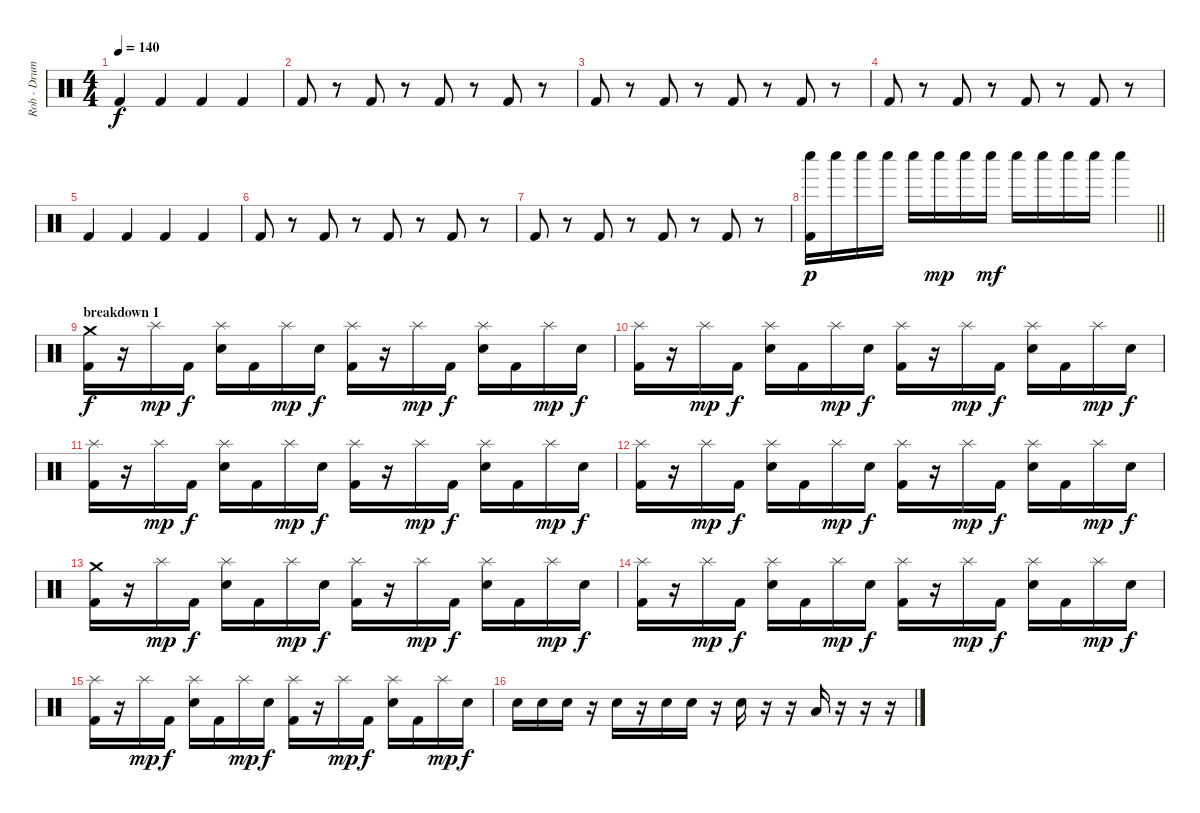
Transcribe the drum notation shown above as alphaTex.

\track ("Rob - Drums" "Rob - Drum") {instrument percussion}
\staff {score}
\articulation defaults
\ts (4 4)
\tempo 140
\clef neutral
\ks c "Kick (hit) 2".4{dy f} "Kick (hit) 2".4 "Kick (hit) 2".4 "Kick (hit) 2".4
|
"Kick (hit) 2".8 r.8 "Kick (hit) 2".8 r.8 "Kick (hit) 2".8 r.8 "Kick (hit) 2".8 r.8 |
"Kick (hit) 2".8 r.8 "Kick (hit) 2".8 r.8 "Kick (hit) 2".8 r.8 "Kick (hit) 2".8 r.8 |
"Kick (hit) 2".8 r.8 "Kick (hit) 2".8 r.8 "Kick (hit) 2".8 r.8 "Kick (hit) 2".8 r.8 |
"Kick (hit) 2".4 "Kick (hit) 2".4 "Kick (hit) 2".4 "Kick (hit) 2".4 |
"Kick (hit) 2".8 r.8 "Kick (hit) 2".8 r.8 "Kick (hit) 2".8 r.8 "Kick (hit) 2".8 r.8 |
"Kick (hit) 2".8 r.8 "Kick (hit) 2".8 r.8 "Kick (hit) 2".8 r.8 "Kick (hit) 2".8 r.8 |
\barLineRight lightlight
("Whistle low (hit)" "Kick (hit) 2").16{dy p} "Whistle low (hit)".16 "Whistle low (hit)".16 "Whistle low (hit)".16 "Whistle low (hit)".16 "Whistle low (hit)".16{dy mp} "Whistle low (hit)".16 "Whistle low (hit)".16{dy mf} "Whistle low (hit)".16 "Whistle low (hit)".16 "Whistle low (hit)".16 "Whistle low (hit)".16 "Whistle low (hit)".4 |
\section ("" "breakdown 1")
("Crash medium (hit)" "Kick (hit) 2").16{dy f} r.16 "Splash (hit)".16{dy mp} "Kick (hit) 2".16{dy f} ("Splash (hit)" "Electric Snare (hit)").16 "Kick (hit) 2".16 "Splash (hit)".16{dy mp} "Electric Snare (hit)".16{dy f} ("Splash (hit)" "Kick (hit) 2").16 r.16 "Splash (hit)".16{dy mp} "Kick (hit) 2".16{dy f} ("Splash (hit)" "Electric Snare (hit)").16 "Kick (hit) 2".16 "Splash (hit)".16{dy mp} "Electric Snare (hit)".16{dy f} |
("Splash (hit)" "Kick (hit) 2").16 r.16 "Splash (hit)".16{dy mp} "Kick (hit) 2".16{dy f} ("Splash (hit)" "Electric Snare (hit)").16 "Kick (hit) 2".16 "Splash (hit)".16{dy mp} "Electric Snare (hit)".16{dy f} ("Splash (hit)" "Kick (hit) 2").16 r.16 "Splash (hit)".16{dy mp} "Kick (hit) 2".16{dy f} ("Splash (hit)" "Electric Snare (hit)").16 "Kick (hit) 2".16 "Splash (hit)".16{dy mp} "Electric Snare (hit)".16{dy f} |
("Splash (hit)" "Kick (hit) 2").16 r.16 "Splash (hit)".16{dy mp} "Kick (hit) 2".16{dy f} ("Splash (hit)" "Electric Snare (hit)").16 "Kick (hit) 2".16 "Splash (hit)".16{dy mp} "Electric Snare (hit)".16{dy f} ("Splash (hit)" "Kick (hit) 2").16 r.16 "Splash (hit)".16{dy mp} "Kick (hit) 2".16{dy f} ("Splash (hit)" "Electric Snare (hit)").16 "Kick (hit) 2".16 "Splash (hit)".16{dy mp} "Electric Snare (hit)".16{dy f} |
("Splash (hit)" "Kick (hit) 2").16 r.16 "Splash (hit)".16{dy mp} "Kick (hit) 2".16{dy f} ("Splash (hit)" "Electric Snare (hit)").16 "Kick (hit) 2".16 "Splash (hit)".16{dy mp} "Electric Snare (hit)".16{dy f} ("Splash (hit)" "Kick (hit) 2").16 r.16 "Splash (hit)".16{dy mp} "Kick (hit) 2".16{dy f} ("Splash (hit)" "Electric Snare (hit)").16 "Kick (hit) 2".16 "Splash (hit)".16{dy mp} "Electric Snare (hit)".16{dy f} |
("Crash medium (hit)" "Kick (hit) 2").16 r.16 "Splash (hit)".16{dy mp} "Kick (hit) 2".16{dy f} ("Splash (hit)" "Electric Snare (hit)").16 "Kick (hit) 2".16 "Splash (hit)".16{dy mp} "Electric Snare (hit)".16{dy f} ("Splash (hit)" "Kick (hit) 2").16 r.16 "Splash (hit)".16{dy mp} "Kick (hit) 2".16{dy f} ("Splash (hit)" "Electric Snare (hit)").16 "Kick (hit) 2".16 "Splash (hit)".16{dy mp} "Electric Snare (hit)".16{dy f} |
("Splash (hit)" "Kick (hit) 2").16 r.16 "Splash (hit)".16{dy mp} "Kick (hit) 2".16{dy f} ("Splash (hit)" "Electric Snare (hit)").16 "Kick (hit) 2".16 "Splash (hit)".16{dy mp} "Electric Snare (hit)".16{dy f} ("Splash (hit)" "Kick (hit) 2").16 r.16 "Splash (hit)".16{dy mp} "Kick (hit) 2".16{dy f} ("Splash (hit)" "Electric Snare (hit)").16 "Kick (hit) 2".16 "Splash (hit)".16{dy mp} "Electric Snare (hit)".16{dy f} |
("Splash (hit)" "Kick (hit) 2").16 r.16 "Splash (hit)".16{dy mp} "Kick (hit) 2".16{dy f} ("Splash (hit)" "Electric Snare (hit)").16 "Kick (hit) 2".16 "Splash (hit)".16{dy mp} "Electric Snare (hit)".16{dy f} ("Splash (hit)" "Kick (hit) 2").16 r.16 "Splash (hit)".16{dy mp} "Kick (hit) 2".16{dy f} ("Splash (hit)" "Electric Snare (hit)").16 "Kick (hit) 2".16 "Splash (hit)".16{dy mp} "Electric Snare (hit)".16{dy f} |
"Electric Snare (hit)".16 "Electric Snare (hit)".16 "Electric Snare (hit)".16 r.16 "Electric Snare (hit)".16 r.16 "Electric Snare (hit)".16 "Electric Snare (hit)".16 r.16 "Electric Snare (hit)".16 r.16 r.16 "Low Floor Tom (hit)".16 r.16 r.16 r.16
